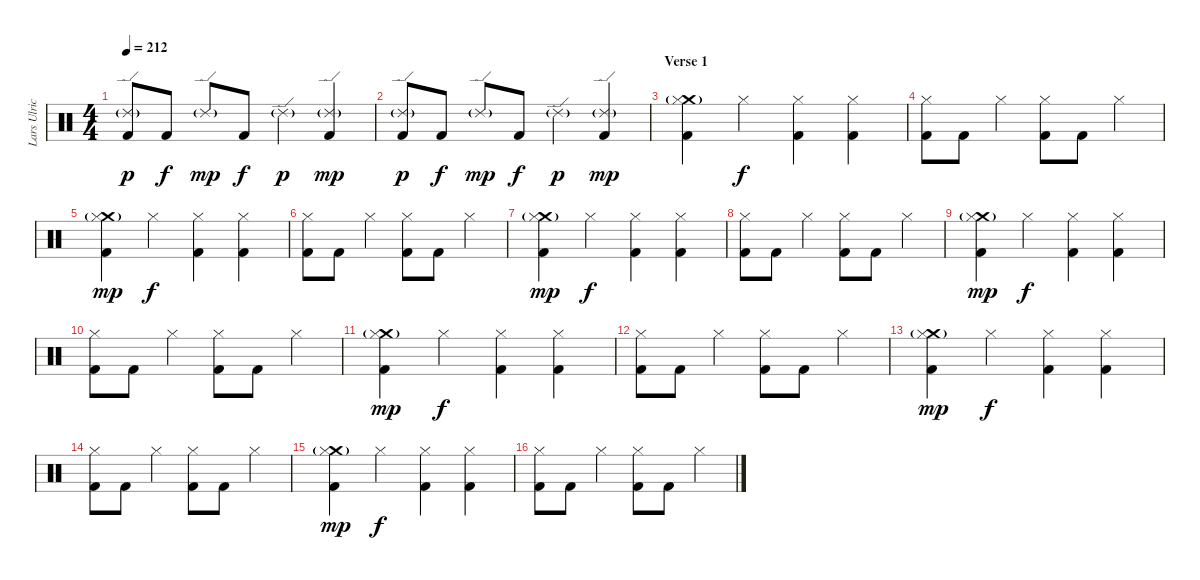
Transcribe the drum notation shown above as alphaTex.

\track ("Lars Ulrich" "Lars Ulric") {instrument percussion}
\staff {score}
\articulation defaults
\ts (4 4)
\tempo 212
\clef neutral
\ks c
("Ride (edge) 2"{g} "Kick (hit) 2").8{dy p} "Kick (hit) 2".8{dy f} "Ride (edge) 2"{g}.8{dy mp} "Kick (hit) 2".8{dy f} "Ride (edge) 2"{g}.4{dy p} ("Ride (edge) 2"{g} "Kick (hit) 2").4{dy mp} |
("Ride (edge) 2"{g} "Kick (hit) 2").8{dy p} "Kick (hit) 2".8{dy f} "Ride (edge) 2"{g}.8{dy mp} "Kick (hit) 2".8{dy f} "Ride (edge) 2"{g}.4{dy p} ("Ride (edge) 2"{g} "Kick (hit) 2").4{dy mp} |
\section ("" "Verse 1")
("Crash medium (hit)"{g} "Hi-Hat (closed)" "Kick (hit) 2").4 "Hi-Hat (closed)".4{dy f} ("Hi-Hat (closed)" "Kick (hit) 2").4 ("Hi-Hat (closed)" "Kick (hit) 2").4 |
("Hi-Hat (closed)" "Kick (hit) 2").8 "Kick (hit) 2".8 "Hi-Hat (closed)".4 ("Hi-Hat (closed)" "Kick (hit) 2").8 "Kick (hit) 2".8 "Hi-Hat (closed)".4 |
("Crash medium (hit)"{g} "Hi-Hat (closed)" "Kick (hit) 2").4{dy mp} "Hi-Hat (closed)".4{dy f} ("Hi-Hat (closed)" "Kick (hit) 2").4 ("Hi-Hat (closed)" "Kick (hit) 2").4 |
("Hi-Hat (closed)" "Kick (hit) 2").8 "Kick (hit) 2".8 "Hi-Hat (closed)".4 ("Hi-Hat (closed)" "Kick (hit) 2").8 "Kick (hit) 2".8 "Hi-Hat (closed)".4 |
("Crash medium (hit)"{g} "Hi-Hat (closed)" "Kick (hit) 2").4{dy mp} "Hi-Hat (closed)".4{dy f} ("Hi-Hat (closed)" "Kick (hit) 2").4 ("Hi-Hat (closed)" "Kick (hit) 2").4 |
("Hi-Hat (closed)" "Kick (hit) 2").8 "Kick (hit) 2".8 "Hi-Hat (closed)".4 ("Hi-Hat (closed)" "Kick (hit) 2").8 "Kick (hit) 2".8 "Hi-Hat (closed)".4 |
("Crash medium (hit)"{g} "Hi-Hat (closed)" "Kick (hit) 2").4{dy mp} "Hi-Hat (closed)".4{dy f} ("Hi-Hat (closed)" "Kick (hit) 2").4 ("Hi-Hat (closed)" "Kick (hit) 2").4 |
("Hi-Hat (closed)" "Kick (hit) 2").8 "Kick (hit) 2".8 "Hi-Hat (closed)".4 ("Hi-Hat (closed)" "Kick (hit) 2").8 "Kick (hit) 2".8 "Hi-Hat (closed)".4 |
("Crash medium (hit)"{g} "Hi-Hat (closed)" "Kick (hit) 2").4{dy mp} "Hi-Hat (closed)".4{dy f} ("Hi-Hat (closed)" "Kick (hit) 2").4 ("Hi-Hat (closed)" "Kick (hit) 2").4 |
("Hi-Hat (closed)" "Kick (hit) 2").8 "Kick (hit) 2".8 "Hi-Hat (closed)".4 ("Hi-Hat (closed)" "Kick (hit) 2").8 "Kick (hit) 2".8 "Hi-Hat (closed)".4 |
("Crash medium (hit)"{g} "Hi-Hat (closed)" "Kick (hit) 2").4{dy mp} "Hi-Hat (closed)".4{dy f} ("Hi-Hat (closed)" "Kick (hit) 2").4 ("Hi-Hat (closed)" "Kick (hit) 2").4 |
("Hi-Hat (closed)" "Kick (hit) 2").8 "Kick (hit) 2".8 "Hi-Hat (closed)".4 ("Hi-Hat (closed)" "Kick (hit) 2").8 "Kick (hit) 2".8 "Hi-Hat (closed)".4 |
("Crash medium (hit)"{g} "Hi-Hat (closed)" "Kick (hit) 2").4{dy mp} "Hi-Hat (closed)".4{dy f} ("Hi-Hat (closed)" "Kick (hit) 2").4 ("Hi-Hat (closed)" "Kick (hit) 2").4 |
("Hi-Hat (closed)" "Kick (hit) 2").8 "Kick (hit) 2".8 "Hi-Hat (closed)".4 ("Hi-Hat (closed)" "Kick (hit) 2").8 "Kick (hit) 2".8 "Hi-Hat (closed)".4
